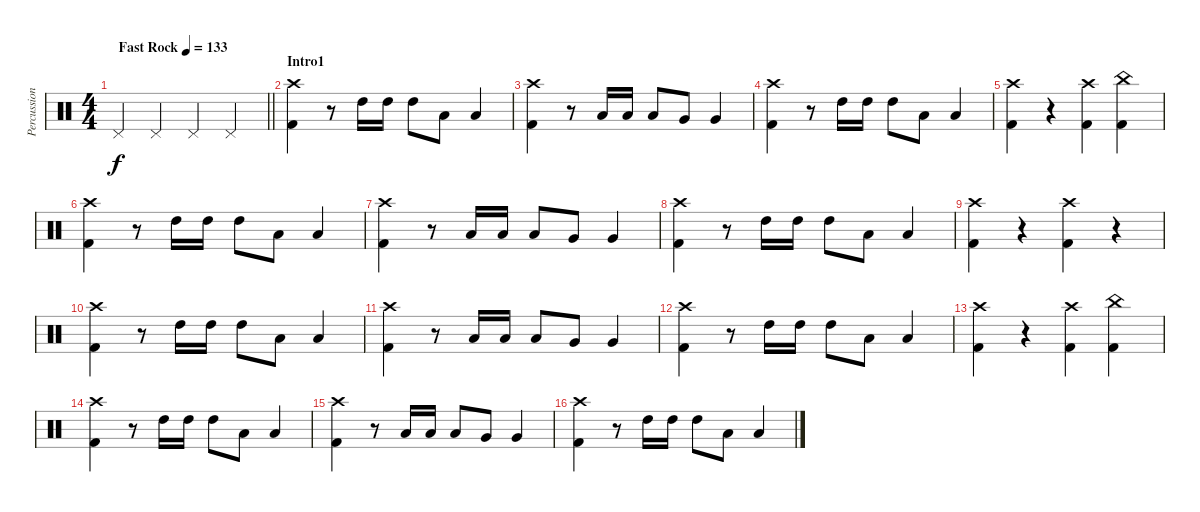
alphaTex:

\track ("Percussion" "Percussion") {solo instrument percussion}
\staff {score}
\articulation defaults
\ts (4 4)
\tempo (133 "Fast Rock")
\clef neutral
\barLineRight lightlight
\ks c "Pedal Hi-Hat (hit)".4{dy f} "Pedal Hi-Hat (hit)".4 "Pedal Hi-Hat (hit)".4 "Pedal Hi-Hat (hit)".4
|
\section ("" "Intro1")
("Crash high (hit)" "Kick (hit) 2").4 r.8 "High Tom (hit)".16 "High Tom (hit)".16 "High Tom (hit)".8 "Low Tom (hit)".8 "Low Tom (hit)".4 |
("Crash high (hit)" "Kick (hit) 2").4 r.8 "Low Tom (hit)".16 "Low Tom (hit)".16 "Low Tom (hit)".8 "Very Low Tom (hit)".8 "Very Low Tom (hit)".4 |
("Crash high (hit)" "Kick (hit) 2").4 r.8 "High Tom (hit)".16 "High Tom (hit)".16 "High Tom (hit)".8 "Low Tom (hit)".8 "Low Tom (hit)".4 |
("Crash high (hit)" "Kick (hit) 2").4 r.4 ("Crash high (hit)" "Kick (hit) 2").4 ("China (hit)" "Kick (hit) 2").4 |
("Crash high (hit)" "Kick (hit) 2").4 r.8 "High Tom (hit)".16 "High Tom (hit)".16 "High Tom (hit)".8 "Low Tom (hit)".8 "Low Tom (hit)".4 |
("Crash high (hit)" "Kick (hit) 2").4 r.8 "Low Tom (hit)".16 "Low Tom (hit)".16 "Low Tom (hit)".8 "Very Low Tom (hit)".8 "Very Low Tom (hit)".4 |
("Crash high (hit)" "Kick (hit) 2").4 r.8 "High Tom (hit)".16 "High Tom (hit)".16 "High Tom (hit)".8 "Low Tom (hit)".8 "Low Tom (hit)".4 |
("Crash high (hit)" "Kick (hit) 2").4 r.4 ("Crash high (hit)" "Kick (hit) 2").4 r.4 |
("Crash high (hit)" "Kick (hit) 2").4 r.8 "High Tom (hit)".16 "High Tom (hit)".16 "High Tom (hit)".8 "Low Tom (hit)".8 "Low Tom (hit)".4 |
("Crash high (hit)" "Kick (hit) 2").4 r.8 "Low Tom (hit)".16 "Low Tom (hit)".16 "Low Tom (hit)".8 "Very Low Tom (hit)".8 "Very Low Tom (hit)".4 |
("Crash high (hit)" "Kick (hit) 2").4 r.8 "High Tom (hit)".16 "High Tom (hit)".16 "High Tom (hit)".8 "Low Tom (hit)".8 "Low Tom (hit)".4 |
("Crash high (hit)" "Kick (hit) 2").4 r.4 ("Crash high (hit)" "Kick (hit) 2").4 ("China (hit)" "Kick (hit) 2").4 |
("Crash high (hit)" "Kick (hit) 2").4 r.8 "High Tom (hit)".16 "High Tom (hit)".16 "High Tom (hit)".8 "Low Tom (hit)".8 "Low Tom (hit)".4 |
("Crash high (hit)" "Kick (hit) 2").4 r.8 "Low Tom (hit)".16 "Low Tom (hit)".16 "Low Tom (hit)".8 "Very Low Tom (hit)".8 "Very Low Tom (hit)".4 |
("Crash high (hit)" "Kick (hit) 2").4 r.8 "High Tom (hit)".16 "High Tom (hit)".16 "High Tom (hit)".8 "Low Tom (hit)".8 "Low Tom (hit)".4
